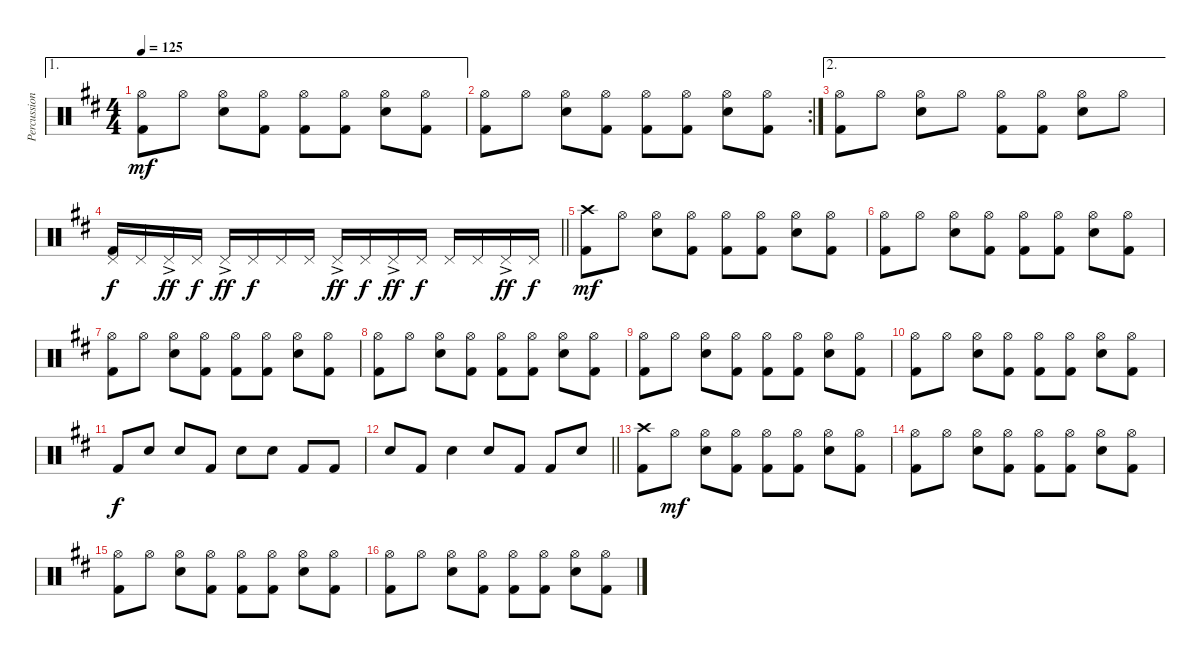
\track ("Percussion" "Percussion") {instrument percussion}
\staff {score}
\articulation defaults
\ae 1
\ts (4 4)
\tempo 125
\clef neutral
\ks d
("Hi-Hat (open)" "Kick (hit) 2").8{dy mf} "Hi-Hat (open)".8 ("Hi-Hat (open)" "Snare (hit) 2").8 ("Hi-Hat (open)" "Kick (hit) 2").8 ("Hi-Hat (open)" "Kick (hit) 2").8 ("Hi-Hat (open)" "Kick (hit) 2").8 ("Hi-Hat (open)" "Snare (hit) 2").8 ("Hi-Hat (open)" "Kick (hit) 2").8 |
\rc 2
("Hi-Hat (open)" "Kick (hit) 2").8 "Hi-Hat (open)".8 ("Hi-Hat (open)" "Snare (hit) 2").8 ("Hi-Hat (open)" "Kick (hit) 2").8 ("Hi-Hat (open)" "Kick (hit) 2").8 ("Hi-Hat (open)" "Kick (hit) 2").8 ("Hi-Hat (open)" "Snare (hit) 2").8 ("Hi-Hat (open)" "Kick (hit) 2").8 |
\ae 2
("Hi-Hat (open)" "Kick (hit) 2").8 "Hi-Hat (open)".8 ("Hi-Hat (open)" "Snare (hit) 2").8 "Hi-Hat (open)".8 ("Hi-Hat (open)" "Kick (hit) 2").8 ("Hi-Hat (open)" "Kick (hit) 2").8 ("Hi-Hat (open)" "Snare (hit) 2").8 "Hi-Hat (open)".8 |
\barLineRight lightlight
("Pedal Hi-Hat (hit)" "Kick (hit) 2").16{dy f} "Pedal Hi-Hat (hit)".16 "Pedal Hi-Hat (hit)"{ac}.16{dy ff} "Pedal Hi-Hat (hit)".16{dy f} "Pedal Hi-Hat (hit)"{ac}.16{dy ff} "Pedal Hi-Hat (hit)".16{dy f} "Pedal Hi-Hat (hit)".16 "Pedal Hi-Hat (hit)".16 "Pedal Hi-Hat (hit)"{ac}.16{dy ff} "Pedal Hi-Hat (hit)".16{dy f} "Pedal Hi-Hat (hit)"{ac}.16{dy ff} "Pedal Hi-Hat (hit)".16{dy f} "Pedal Hi-Hat (hit)".16 "Pedal Hi-Hat (hit)".16 "Pedal Hi-Hat (hit)"{ac}.16{dy ff} "Pedal Hi-Hat (hit)".16{dy f} |
("Crash high (hit)" "Kick (hit) 2").8{dy mf} "Hi-Hat (open)".8 ("Hi-Hat (open)" "Snare (hit) 2").8 ("Hi-Hat (open)" "Kick (hit) 2").8 ("Hi-Hat (open)" "Kick (hit) 2").8 ("Hi-Hat (open)" "Kick (hit) 2").8 ("Hi-Hat (open)" "Snare (hit) 2").8 ("Hi-Hat (open)" "Kick (hit) 2").8 |
("Hi-Hat (open)" "Kick (hit) 2").8 "Hi-Hat (open)".8 ("Hi-Hat (open)" "Snare (hit) 2").8 ("Hi-Hat (open)" "Kick (hit) 2").8 ("Hi-Hat (open)" "Kick (hit) 2").8 ("Hi-Hat (open)" "Kick (hit) 2").8 ("Hi-Hat (open)" "Snare (hit) 2").8 ("Hi-Hat (open)" "Kick (hit) 2").8 |
("Hi-Hat (open)" "Kick (hit) 2").8 "Hi-Hat (open)".8 ("Hi-Hat (open)" "Snare (hit) 2").8 ("Hi-Hat (open)" "Kick (hit) 2").8 ("Hi-Hat (open)" "Kick (hit) 2").8 ("Hi-Hat (open)" "Kick (hit) 2").8 ("Hi-Hat (open)" "Snare (hit) 2").8 ("Hi-Hat (open)" "Kick (hit) 2").8 |
("Hi-Hat (open)" "Kick (hit) 2").8 "Hi-Hat (open)".8 ("Hi-Hat (open)" "Snare (hit) 2").8 ("Hi-Hat (open)" "Kick (hit) 2").8 ("Hi-Hat (open)" "Kick (hit) 2").8 ("Hi-Hat (open)" "Kick (hit) 2").8 ("Hi-Hat (open)" "Snare (hit) 2").8 ("Hi-Hat (open)" "Kick (hit) 2").8 |
("Hi-Hat (open)" "Kick (hit) 2").8 "Hi-Hat (open)".8 ("Hi-Hat (open)" "Snare (hit) 2").8 ("Hi-Hat (open)" "Kick (hit) 2").8 ("Hi-Hat (open)" "Kick (hit) 2").8 ("Hi-Hat (open)" "Kick (hit) 2").8 ("Hi-Hat (open)" "Snare (hit) 2").8 ("Hi-Hat (open)" "Kick (hit) 2").8 |
("Hi-Hat (open)" "Kick (hit) 2").8 "Hi-Hat (open)".8 ("Hi-Hat (open)" "Snare (hit) 2").8 ("Hi-Hat (open)" "Kick (hit) 2").8 ("Hi-Hat (open)" "Kick (hit) 2").8 ("Hi-Hat (open)" "Kick (hit) 2").8 ("Hi-Hat (open)" "Snare (hit) 2").8 ("Hi-Hat (open)" "Kick (hit) 2").8 |
"Kick (hit) 2".8{dy f} "Snare (hit) 2".8 "Snare (hit) 2".8 "Kick (hit) 2".8 "Snare (hit) 2".8 "Snare (hit) 2".8 "Kick (hit) 2".8 "Kick (hit) 2".8 |
\barLineRight lightlight "Snare (hit) 2".8 "Kick (hit) 2".8 "Snare (hit) 2".4 "Snare (hit) 2".8 "Kick (hit) 2".8 "Kick (hit) 2".8 "Snare (hit) 2".8
|
("Crash high (hit)" "Kick (hit) 2").8 "Hi-Hat (open)".8{dy mf} ("Hi-Hat (open)" "Snare (hit) 2").8 ("Hi-Hat (open)" "Kick (hit) 2").8 ("Hi-Hat (open)" "Kick (hit) 2").8 ("Hi-Hat (open)" "Kick (hit) 2").8 ("Hi-Hat (open)" "Snare (hit) 2").8 ("Hi-Hat (open)" "Kick (hit) 2").8 |
("Hi-Hat (open)" "Kick (hit) 2").8 "Hi-Hat (open)".8 ("Hi-Hat (open)" "Snare (hit) 2").8 ("Hi-Hat (open)" "Kick (hit) 2").8 ("Hi-Hat (open)" "Kick (hit) 2").8 ("Hi-Hat (open)" "Kick (hit) 2").8 ("Hi-Hat (open)" "Snare (hit) 2").8 ("Hi-Hat (open)" "Kick (hit) 2").8 |
("Hi-Hat (open)" "Kick (hit) 2").8 "Hi-Hat (open)".8 ("Hi-Hat (open)" "Snare (hit) 2").8 ("Hi-Hat (open)" "Kick (hit) 2").8 ("Hi-Hat (open)" "Kick (hit) 2").8 ("Hi-Hat (open)" "Kick (hit) 2").8 ("Hi-Hat (open)" "Snare (hit) 2").8 ("Hi-Hat (open)" "Kick (hit) 2").8 |
("Hi-Hat (open)" "Kick (hit) 2").8 "Hi-Hat (open)".8 ("Hi-Hat (open)" "Snare (hit) 2").8 ("Hi-Hat (open)" "Kick (hit) 2").8 ("Hi-Hat (open)" "Kick (hit) 2").8 ("Hi-Hat (open)" "Kick (hit) 2").8 ("Hi-Hat (open)" "Snare (hit) 2").8 ("Hi-Hat (open)" "Kick (hit) 2").8
